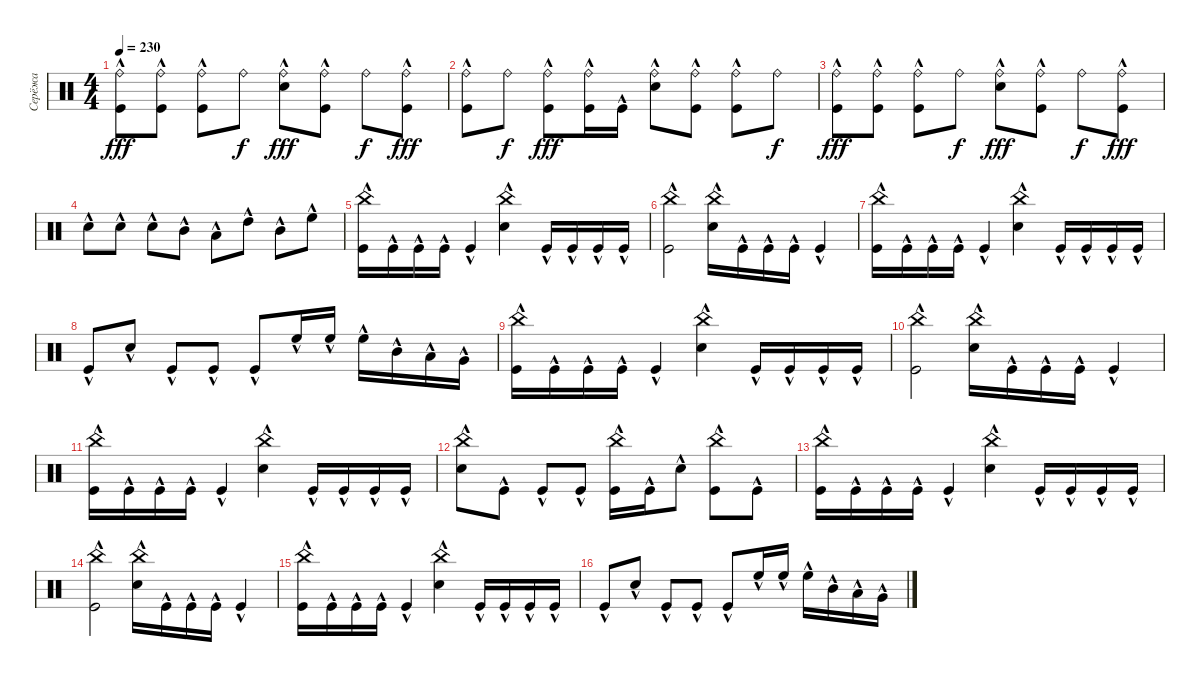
\track ("Серёжа" "Серёжа") {instrument percussion}
\staff {score}
\articulation defaults
\ts (4 4)
\tempo 230
\clef neutral
\ks c
("Ride (bell)" "Kick (hit)"{hac}).8{dy fff} ("Ride (bell)" "Kick (hit)"{hac}).8 ("Ride (bell)" "Kick (hit)"{hac}).8 "Ride (bell)".8{dy f} ("Ride (bell)" "Snare (hit) 2"{hac}).8{dy fff} ("Ride (bell)" "Kick (hit)"{hac}).8 "Ride (bell)".8{dy f} ("Ride (bell)" "Kick (hit)"{hac}).8{dy fff} |
("Ride (bell)" "Kick (hit)"{hac}).8 "Ride (bell)".8{dy f} ("Ride (bell)" "Kick (hit)"{hac}).8{dy fff} ("Ride (bell)" "Kick (hit)"{hac}).16 "Kick (hit)"{hac}.16 ("Ride (bell)" "Snare (hit) 2"{hac}).8 ("Ride (bell)" "Kick (hit)"{hac}).8 ("Ride (bell)" "Kick (hit)"{hac}).8 "Ride (bell)".8{dy f} |
("Ride (bell)" "Kick (hit)"{hac}).8{dy fff} ("Ride (bell)" "Kick (hit)"{hac}).8 ("Ride (bell)" "Kick (hit)"{hac}).8 "Ride (bell)".8{dy f} ("Ride (bell)" "Snare (hit) 2"{hac}).8{dy fff} ("Ride (bell)" "Kick (hit)"{hac}).8 "Ride (bell)".8{dy f} ("Ride (bell)" "Kick (hit)"{hac}).8{dy fff} |
"Snare (hit) 2"{hac}.8 "Snare (hit) 2"{hac}.8 "Snare (hit) 2"{hac}.8 "Mid Tom (hit)"{hac}.8 "Low Tom (hit)"{hac}.8 "High Tom (hit)"{hac}.8 "Mid Tom (hit)"{hac}.8 "High Floor Tom (hit)"{hac}.8 |
("China (hit)" "Kick (hit)"{hac}).16 "Kick (hit)"{hac}.16 "Kick (hit)"{hac}.16 "Kick (hit)"{hac}.16 "Kick (hit)"{hac}.4 ("China (hit)" "Snare (hit) 2"{hac}).4 "Kick (hit)"{hac}.16 "Kick (hit)"{hac}.16 "Kick (hit)"{hac}.16 "Kick (hit)"{hac}.16 |
("China (hit)" "Kick (hit)"{hac}).2 ("China (hit)" "Snare (hit) 2"{hac}).16 "Kick (hit)"{hac}.16 "Kick (hit)"{hac}.16 "Kick (hit)"{hac}.16 "Kick (hit)"{hac}.4 |
("China (hit)" "Kick (hit)"{hac}).16 "Kick (hit)"{hac}.16 "Kick (hit)"{hac}.16 "Kick (hit)"{hac}.16 "Kick (hit)"{hac}.4 ("China (hit)" "Snare (hit) 2"{hac}).4 "Kick (hit)"{hac}.16 "Kick (hit)"{hac}.16 "Kick (hit)"{hac}.16 "Kick (hit)"{hac}.16 |
"Kick (hit)"{hac}.8 "Snare (hit) 2"{hac}.8 "Kick (hit)"{hac}.8 "Kick (hit)"{hac}.8 "Kick (hit)"{hac}.8 "High Floor Tom (hit)"{hac}.16 "High Floor Tom (hit)"{hac}.16 "High Floor Tom (hit)"{hac}.16 "Mid Tom (hit)"{hac}.16 "Low Tom (hit)"{hac}.16 "Very Low Tom (hit)"{hac}.16 |
("China (hit)" "Kick (hit)"{hac}).16 "Kick (hit)"{hac}.16 "Kick (hit)"{hac}.16 "Kick (hit)"{hac}.16 "Kick (hit)"{hac}.4 ("China (hit)" "Snare (hit) 2"{hac}).4 "Kick (hit)"{hac}.16 "Kick (hit)"{hac}.16 "Kick (hit)"{hac}.16 "Kick (hit)"{hac}.16 |
("China (hit)" "Kick (hit)"{hac}).2 ("China (hit)" "Snare (hit) 2"{hac}).16 "Kick (hit)"{hac}.16 "Kick (hit)"{hac}.16 "Kick (hit)"{hac}.16 "Kick (hit)"{hac}.4 |
("China (hit)" "Kick (hit)"{hac}).16 "Kick (hit)"{hac}.16 "Kick (hit)"{hac}.16 "Kick (hit)"{hac}.16 "Kick (hit)"{hac}.4 ("China (hit)" "Snare (hit) 2"{hac}).4 "Kick (hit)"{hac}.16 "Kick (hit)"{hac}.16 "Kick (hit)"{hac}.16 "Kick (hit)"{hac}.16 |
("China (hit)" "Snare (hit) 2"{hac}).8 "Kick (hit)"{hac}.8 "Kick (hit)"{hac}.8 "Kick (hit)"{hac}.8 ("China (hit)" "Kick (hit)"{hac}).16 "Kick (hit)"{hac}.16 "Snare (hit) 2"{hac}.8 ("China (hit)" "Kick (hit)"{hac}).8 "Kick (hit)"{hac}.8 |
("China (hit)" "Kick (hit)"{hac}).16 "Kick (hit)"{hac}.16 "Kick (hit)"{hac}.16 "Kick (hit)"{hac}.16 "Kick (hit)"{hac}.4 ("China (hit)" "Snare (hit) 2"{hac}).4 "Kick (hit)"{hac}.16 "Kick (hit)"{hac}.16 "Kick (hit)"{hac}.16 "Kick (hit)"{hac}.16 |
("China (hit)" "Kick (hit)"{hac}).2 ("China (hit)" "Snare (hit) 2"{hac}).16 "Kick (hit)"{hac}.16 "Kick (hit)"{hac}.16 "Kick (hit)"{hac}.16 "Kick (hit)"{hac}.4 |
("China (hit)" "Kick (hit)"{hac}).16 "Kick (hit)"{hac}.16 "Kick (hit)"{hac}.16 "Kick (hit)"{hac}.16 "Kick (hit)"{hac}.4 ("China (hit)" "Snare (hit) 2"{hac}).4 "Kick (hit)"{hac}.16 "Kick (hit)"{hac}.16 "Kick (hit)"{hac}.16 "Kick (hit)"{hac}.16 |
"Kick (hit)"{hac}.8 "Snare (hit) 2"{hac}.8 "Kick (hit)"{hac}.8 "Kick (hit)"{hac}.8 "Kick (hit)"{hac}.8 "High Floor Tom (hit)"{hac}.16 "High Floor Tom (hit)"{hac}.16 "High Floor Tom (hit)"{hac}.16 "Mid Tom (hit)"{hac}.16 "Low Tom (hit)"{hac}.16 "Very Low Tom (hit)"{hac}.16
